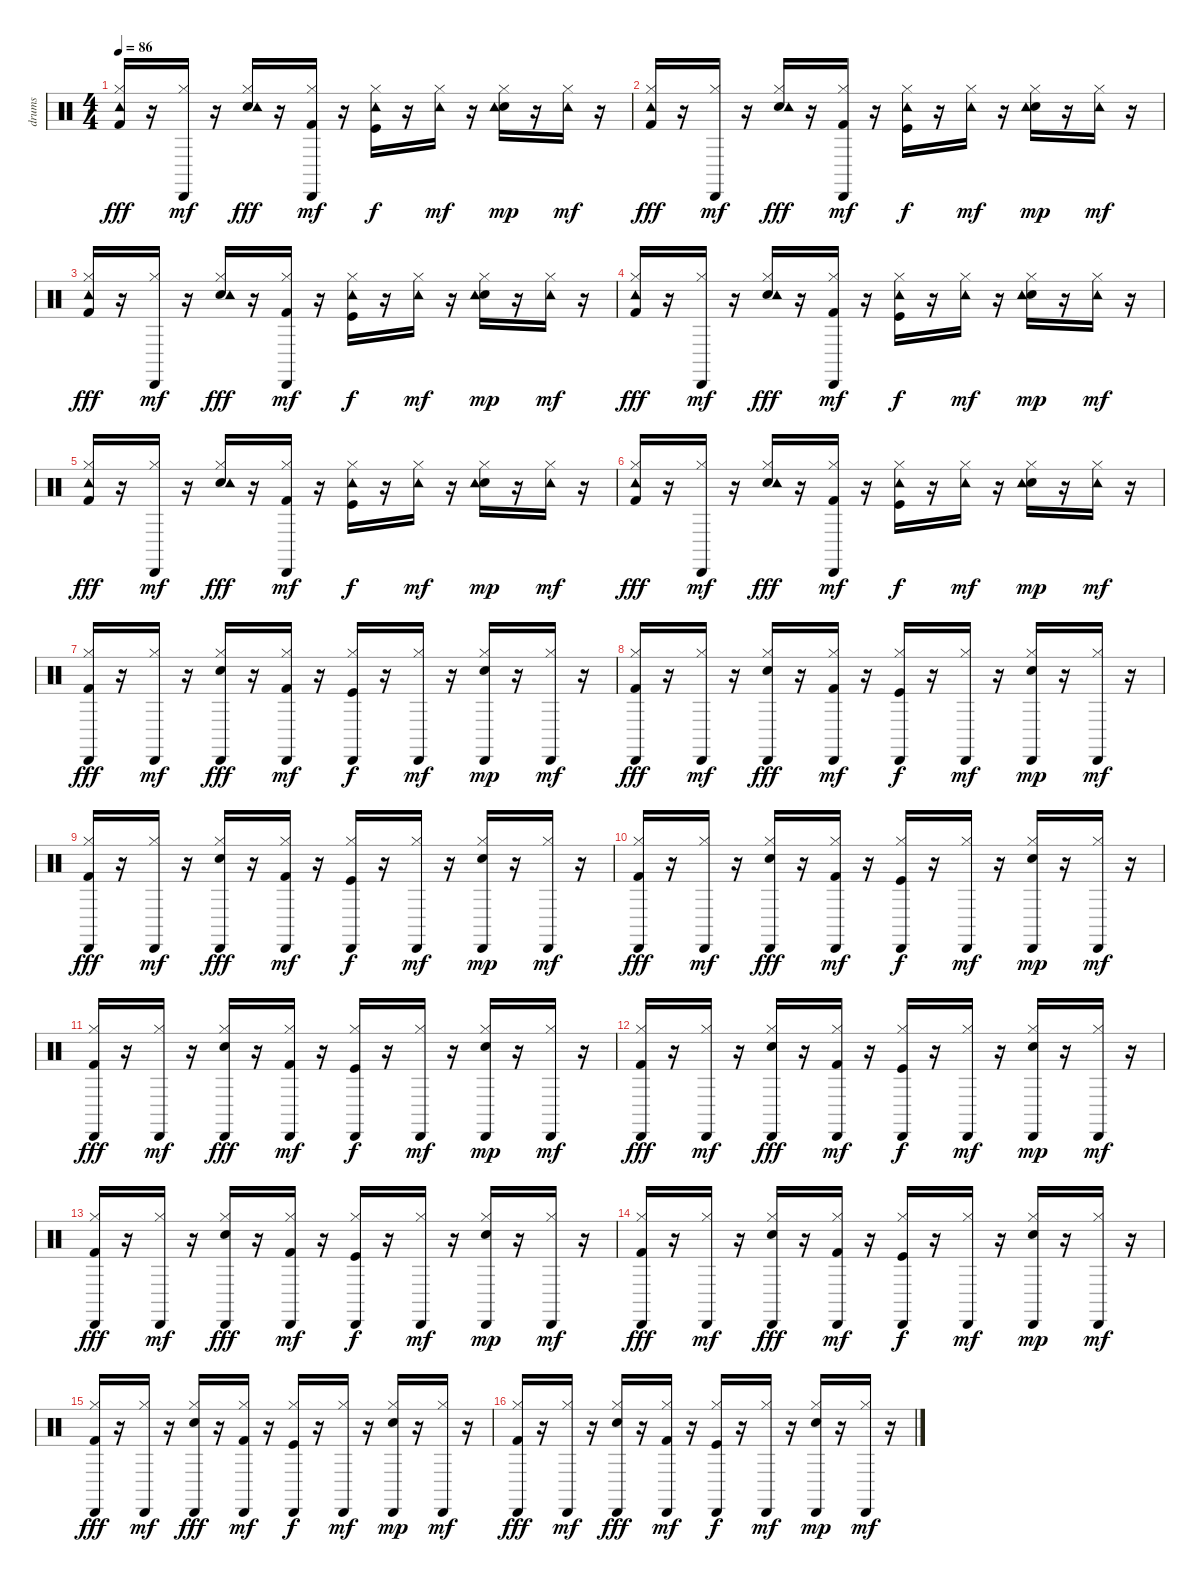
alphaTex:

\track ("drums" "drums") {instrument percussion}
\staff {score}
\articulation defaults
\ts (4 4)
\tempo 86
\clef neutral
\ks c
("Kick (hit) 2" "Hi-Hat (closed)" "Tambourine (hit)").16{dy fff} r.16 ("Hi-Hat (closed)" "Cabasa (hit)").16{dy mf} r.16 ("Snare (hit) 2" "Hi-Hat (closed)" "Tambourine (hit)").16{dy fff} r.16 ("Kick (hit) 2" "Hi-Hat (closed)" "Cabasa (hit)").16{dy mf} r.16 ("Kick (hit)" "Hi-Hat (closed)" "Tambourine (hit)").16{dy f} r.16 ("Hi-Hat (closed)" "Tambourine (hit)").16{dy mf} r.16 ("Snare (hit) 2" "Hi-Hat (closed)" "Tambourine (hit)").16{dy mp} r.16 ("Hi-Hat (closed)" "Tambourine (hit)").16{dy mf} r.16 |
("Kick (hit) 2" "Hi-Hat (closed)" "Tambourine (hit)").16{dy fff} r.16 ("Hi-Hat (closed)" "Cabasa (hit)").16{dy mf} r.16 ("Snare (hit) 2" "Hi-Hat (closed)" "Tambourine (hit)").16{dy fff} r.16 ("Kick (hit) 2" "Hi-Hat (closed)" "Cabasa (hit)").16{dy mf} r.16 ("Kick (hit)" "Hi-Hat (closed)" "Tambourine (hit)").16{dy f} r.16 ("Hi-Hat (closed)" "Tambourine (hit)").16{dy mf} r.16 ("Snare (hit) 2" "Hi-Hat (closed)" "Tambourine (hit)").16{dy mp} r.16 ("Hi-Hat (closed)" "Tambourine (hit)").16{dy mf} r.16 |
("Kick (hit) 2" "Hi-Hat (closed)" "Tambourine (hit)").16{dy fff} r.16 ("Hi-Hat (closed)" "Cabasa (hit)").16{dy mf} r.16 ("Snare (hit) 2" "Hi-Hat (closed)" "Tambourine (hit)").16{dy fff} r.16 ("Kick (hit) 2" "Hi-Hat (closed)" "Cabasa (hit)").16{dy mf} r.16 ("Kick (hit)" "Hi-Hat (closed)" "Tambourine (hit)").16{dy f} r.16 ("Hi-Hat (closed)" "Tambourine (hit)").16{dy mf} r.16 ("Snare (hit) 2" "Hi-Hat (closed)" "Tambourine (hit)").16{dy mp} r.16 ("Hi-Hat (closed)" "Tambourine (hit)").16{dy mf} r.16 |
("Kick (hit) 2" "Hi-Hat (closed)" "Tambourine (hit)").16{dy fff} r.16 ("Hi-Hat (closed)" "Cabasa (hit)").16{dy mf} r.16 ("Snare (hit) 2" "Hi-Hat (closed)" "Tambourine (hit)").16{dy fff} r.16 ("Kick (hit) 2" "Hi-Hat (closed)" "Cabasa (hit)").16{dy mf} r.16 ("Kick (hit)" "Hi-Hat (closed)" "Tambourine (hit)").16{dy f} r.16 ("Hi-Hat (closed)" "Tambourine (hit)").16{dy mf} r.16 ("Snare (hit) 2" "Hi-Hat (closed)" "Tambourine (hit)").16{dy mp} r.16 ("Hi-Hat (closed)" "Tambourine (hit)").16{dy mf} r.16 |
("Kick (hit) 2" "Hi-Hat (closed)" "Tambourine (hit)").16{dy fff} r.16 ("Hi-Hat (closed)" "Cabasa (hit)").16{dy mf} r.16 ("Snare (hit) 2" "Hi-Hat (closed)" "Tambourine (hit)").16{dy fff} r.16 ("Kick (hit) 2" "Hi-Hat (closed)" "Cabasa (hit)").16{dy mf} r.16 ("Kick (hit)" "Hi-Hat (closed)" "Tambourine (hit)").16{dy f} r.16 ("Hi-Hat (closed)" "Tambourine (hit)").16{dy mf} r.16 ("Snare (hit) 2" "Hi-Hat (closed)" "Tambourine (hit)").16{dy mp} r.16 ("Hi-Hat (closed)" "Tambourine (hit)").16{dy mf} r.16 |
("Kick (hit) 2" "Hi-Hat (closed)" "Tambourine (hit)").16{dy fff} r.16 ("Hi-Hat (closed)" "Cabasa (hit)").16{dy mf} r.16 ("Snare (hit) 2" "Hi-Hat (closed)" "Tambourine (hit)").16{dy fff} r.16 ("Kick (hit) 2" "Hi-Hat (closed)" "Cabasa (hit)").16{dy mf} r.16 ("Kick (hit)" "Hi-Hat (closed)" "Tambourine (hit)").16{dy f} r.16 ("Hi-Hat (closed)" "Tambourine (hit)").16{dy mf} r.16 ("Snare (hit) 2" "Hi-Hat (closed)" "Tambourine (hit)").16{dy mp} r.16 ("Hi-Hat (closed)" "Tambourine (hit)").16{dy mf} r.16 |
("Kick (hit) 2" "Hi-Hat (closed)" "Cabasa (hit)").16{dy fff} r.16 ("Hi-Hat (closed)" "Cabasa (hit)").16{dy mf} r.16 ("Snare (hit) 2" "Hi-Hat (closed)" "Cabasa (hit)").16{dy fff} r.16 ("Kick (hit) 2" "Hi-Hat (closed)" "Cabasa (hit)").16{dy mf} r.16 ("Kick (hit)" "Hi-Hat (closed)" "Cabasa (hit)").16{dy f} r.16 ("Hi-Hat (closed)" "Cabasa (hit)").16{dy mf} r.16 ("Snare (hit) 2" "Hi-Hat (closed)" "Cabasa (hit)").16{dy mp} r.16 ("Hi-Hat (closed)" "Cabasa (hit)").16{dy mf} r.16 |
("Kick (hit) 2" "Hi-Hat (closed)" "Cabasa (hit)").16{dy fff} r.16 ("Hi-Hat (closed)" "Cabasa (hit)").16{dy mf} r.16 ("Snare (hit) 2" "Hi-Hat (closed)" "Cabasa (hit)").16{dy fff} r.16 ("Kick (hit) 2" "Hi-Hat (closed)" "Cabasa (hit)").16{dy mf} r.16 ("Kick (hit)" "Hi-Hat (closed)" "Cabasa (hit)").16{dy f} r.16 ("Hi-Hat (closed)" "Cabasa (hit)").16{dy mf} r.16 ("Snare (hit) 2" "Hi-Hat (closed)" "Cabasa (hit)").16{dy mp} r.16 ("Hi-Hat (closed)" "Cabasa (hit)").16{dy mf} r.16 |
("Kick (hit) 2" "Hi-Hat (closed)" "Cabasa (hit)").16{dy fff} r.16 ("Hi-Hat (closed)" "Cabasa (hit)").16{dy mf} r.16 ("Snare (hit) 2" "Hi-Hat (closed)" "Cabasa (hit)").16{dy fff} r.16 ("Kick (hit) 2" "Hi-Hat (closed)" "Cabasa (hit)").16{dy mf} r.16 ("Kick (hit)" "Hi-Hat (closed)" "Cabasa (hit)").16{dy f} r.16 ("Hi-Hat (closed)" "Cabasa (hit)").16{dy mf} r.16 ("Snare (hit) 2" "Hi-Hat (closed)" "Cabasa (hit)").16{dy mp} r.16 ("Hi-Hat (closed)" "Cabasa (hit)").16{dy mf} r.16 |
("Kick (hit) 2" "Hi-Hat (closed)" "Cabasa (hit)").16{dy fff} r.16 ("Hi-Hat (closed)" "Cabasa (hit)").16{dy mf} r.16 ("Snare (hit) 2" "Hi-Hat (closed)" "Cabasa (hit)").16{dy fff} r.16 ("Kick (hit) 2" "Hi-Hat (closed)" "Cabasa (hit)").16{dy mf} r.16 ("Kick (hit)" "Hi-Hat (closed)" "Cabasa (hit)").16{dy f} r.16 ("Hi-Hat (closed)" "Cabasa (hit)").16{dy mf} r.16 ("Snare (hit) 2" "Hi-Hat (closed)" "Cabasa (hit)").16{dy mp} r.16 ("Hi-Hat (closed)" "Cabasa (hit)").16{dy mf} r.16 |
("Kick (hit) 2" "Hi-Hat (closed)" "Cabasa (hit)").16{dy fff} r.16 ("Hi-Hat (closed)" "Cabasa (hit)").16{dy mf} r.16 ("Snare (hit) 2" "Hi-Hat (closed)" "Cabasa (hit)").16{dy fff} r.16 ("Kick (hit) 2" "Hi-Hat (closed)" "Cabasa (hit)").16{dy mf} r.16 ("Kick (hit)" "Hi-Hat (closed)" "Cabasa (hit)").16{dy f} r.16 ("Hi-Hat (closed)" "Cabasa (hit)").16{dy mf} r.16 ("Snare (hit) 2" "Hi-Hat (closed)" "Cabasa (hit)").16{dy mp} r.16 ("Hi-Hat (closed)" "Cabasa (hit)").16{dy mf} r.16 |
("Kick (hit) 2" "Hi-Hat (closed)" "Cabasa (hit)").16{dy fff} r.16 ("Hi-Hat (closed)" "Cabasa (hit)").16{dy mf} r.16 ("Snare (hit) 2" "Hi-Hat (closed)" "Cabasa (hit)").16{dy fff} r.16 ("Kick (hit) 2" "Hi-Hat (closed)" "Cabasa (hit)").16{dy mf} r.16 ("Kick (hit)" "Hi-Hat (closed)" "Cabasa (hit)").16{dy f} r.16 ("Hi-Hat (closed)" "Cabasa (hit)").16{dy mf} r.16 ("Snare (hit) 2" "Hi-Hat (closed)" "Cabasa (hit)").16{dy mp} r.16 ("Hi-Hat (closed)" "Cabasa (hit)").16{dy mf} r.16 |
("Kick (hit) 2" "Hi-Hat (closed)" "Cabasa (hit)").16{dy fff} r.16 ("Hi-Hat (closed)" "Cabasa (hit)").16{dy mf} r.16 ("Snare (hit) 2" "Hi-Hat (closed)" "Cabasa (hit)").16{dy fff} r.16 ("Kick (hit) 2" "Hi-Hat (closed)" "Cabasa (hit)").16{dy mf} r.16 ("Kick (hit)" "Hi-Hat (closed)" "Cabasa (hit)").16{dy f} r.16 ("Hi-Hat (closed)" "Cabasa (hit)").16{dy mf} r.16 ("Snare (hit) 2" "Hi-Hat (closed)" "Cabasa (hit)").16{dy mp} r.16 ("Hi-Hat (closed)" "Cabasa (hit)").16{dy mf} r.16 |
("Kick (hit) 2" "Hi-Hat (closed)" "Cabasa (hit)").16{dy fff} r.16 ("Hi-Hat (closed)" "Cabasa (hit)").16{dy mf} r.16 ("Snare (hit) 2" "Hi-Hat (closed)" "Cabasa (hit)").16{dy fff} r.16 ("Kick (hit) 2" "Hi-Hat (closed)" "Cabasa (hit)").16{dy mf} r.16 ("Kick (hit)" "Hi-Hat (closed)" "Cabasa (hit)").16{dy f} r.16 ("Hi-Hat (closed)" "Cabasa (hit)").16{dy mf} r.16 ("Snare (hit) 2" "Hi-Hat (closed)" "Cabasa (hit)").16{dy mp} r.16 ("Hi-Hat (closed)" "Cabasa (hit)").16{dy mf} r.16 |
("Kick (hit) 2" "Hi-Hat (closed)" "Cabasa (hit)").16{dy fff} r.16 ("Hi-Hat (closed)" "Cabasa (hit)").16{dy mf} r.16 ("Snare (hit) 2" "Hi-Hat (closed)" "Cabasa (hit)").16{dy fff} r.16 ("Kick (hit) 2" "Hi-Hat (closed)" "Cabasa (hit)").16{dy mf} r.16 ("Kick (hit)" "Hi-Hat (closed)" "Cabasa (hit)").16{dy f} r.16 ("Hi-Hat (closed)" "Cabasa (hit)").16{dy mf} r.16 ("Snare (hit) 2" "Hi-Hat (closed)" "Cabasa (hit)").16{dy mp} r.16 ("Hi-Hat (closed)" "Cabasa (hit)").16{dy mf} r.16 |
("Kick (hit) 2" "Hi-Hat (closed)" "Cabasa (hit)").16{dy fff} r.16 ("Hi-Hat (closed)" "Cabasa (hit)").16{dy mf} r.16 ("Snare (hit) 2" "Hi-Hat (closed)" "Cabasa (hit)").16{dy fff} r.16 ("Kick (hit) 2" "Hi-Hat (closed)" "Cabasa (hit)").16{dy mf} r.16 ("Kick (hit)" "Hi-Hat (closed)" "Cabasa (hit)").16{dy f} r.16 ("Hi-Hat (closed)" "Cabasa (hit)").16{dy mf} r.16 ("Snare (hit) 2" "Hi-Hat (closed)" "Cabasa (hit)").16{dy mp} r.16 ("Hi-Hat (closed)" "Cabasa (hit)").16{dy mf} r.16
